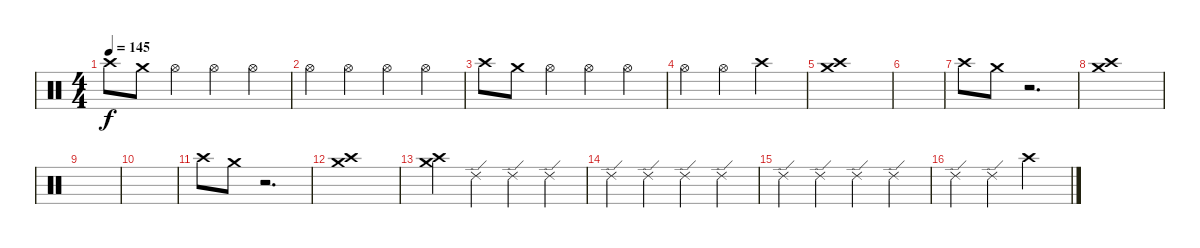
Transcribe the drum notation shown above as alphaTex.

\track "" {instrument percussion}
\staff {score}
\articulation defaults
\ts (4 4)
\tempo 145
\clef neutral
\ks c "Crash high (hit)".8{dy f} "Crash medium (hit)".8 "Hi-Hat (open)".4 "Hi-Hat (open)".4 "Hi-Hat (open)".4
|
"Hi-Hat (open)".4 "Hi-Hat (open)".4 "Hi-Hat (open)".4 "Hi-Hat (open)".4 |
"Crash high (hit)".8 "Crash medium (hit)".8 "Hi-Hat (open)".4 "Hi-Hat (open)".4 "Hi-Hat (open)".4 |
"Hi-Hat (open)".4 "Hi-Hat (open)".4 "Crash high (hit)".2 |
("Crash medium (hit)" "Crash high (hit)").1 |
|
"Crash high (hit)".8 "Crash medium (hit)".8 r.2{d} |
("Crash medium (hit)" "Crash high (hit)").1 |
|
|
"Crash high (hit)".8 "Crash medium (hit)".8 r.2{d} |
("Crash medium (hit)" "Crash high (hit)").1 |
("Crash medium (hit)" "Crash high (hit)").4 "Ride (edge) 2".4 "Ride (edge) 2".4 "Ride (edge) 2".4 |
"Ride (edge) 2".4 "Ride (edge) 2".4 "Ride (edge) 2".4 "Ride (edge) 2".4 |
"Ride (edge) 2".4 "Ride (edge) 2".4 "Ride (edge) 2".4 "Ride (edge) 2".4 |
"Ride (edge) 2".4 "Ride (edge) 2".4 "Crash high (hit)".2
